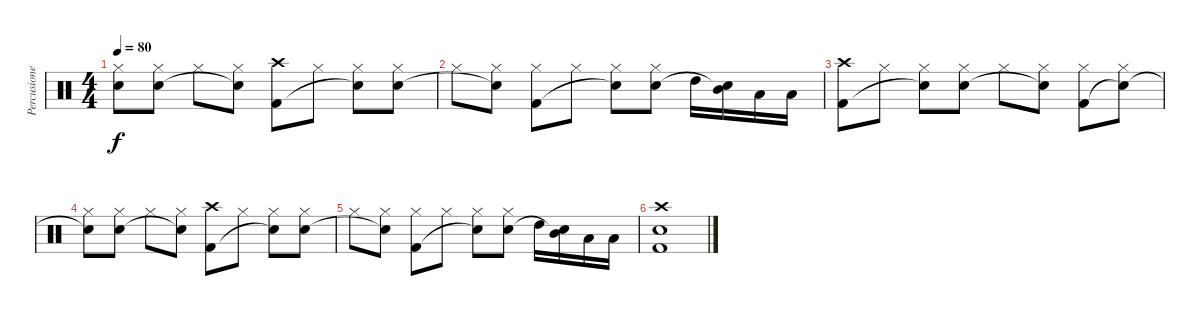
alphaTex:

\track ("Percusiones" "Percusione") {instrument percussion}
\staff {score}
\articulation defaults
\ts (4 4)
\tempo 80
\clef neutral
\ks c
("Hi-Hat (closed)" "Snare (hit)"{t}).8{dy f} ("Hi-Hat (closed)" "Electric Snare (hit)").8 "Hi-Hat (closed)".8 ("Hi-Hat (closed)" "Snare (hit)"{t}).8 ("Crash high (hit)" "Kick (hit) 2").8 "Hi-Hat (closed)".8 ("Hi-Hat (closed)" "Snare (hit)"{t}).8 ("Hi-Hat (closed)" "Electric Snare (hit)").8 |
"Hi-Hat (closed)".8 ("Hi-Hat (closed)" "Snare (hit)"{t}).8 ("Hi-Hat (closed)" "Kick (hit) 2").8 "Hi-Hat (closed)".8 ("Hi-Hat (closed)" "Snare (hit)"{t}).8 ("Hi-Hat (closed)" "Electric Snare (hit)").8 "High Tom (hit)".16 ("Mid Tom (hit)" "Snare (hit)"{t}).16 "Low Tom (hit)".16 "Low Tom (hit)".16 |
("Crash high (hit)" "Kick (hit) 2").8 "Hi-Hat (closed)".8 ("Hi-Hat (closed)" "Snare (hit)"{t}).8 ("Hi-Hat (closed)" "Electric Snare (hit)").8 "Hi-Hat (closed)".8 ("Hi-Hat (closed)" "Snare (hit)"{t}).8 ("Hi-Hat (closed)" "Kick (hit) 2").8 ("Hi-Hat (closed)" "Snare (hit)"{t}).8 |
("Hi-Hat (closed)" "Snare (hit)"{t}).8 ("Hi-Hat (closed)" "Electric Snare (hit)").8 "Hi-Hat (closed)".8 ("Hi-Hat (closed)" "Snare (hit)"{t}).8 ("Crash high (hit)" "Kick (hit) 2").8 "Hi-Hat (closed)".8 ("Hi-Hat (closed)" "Snare (hit)"{t}).8 ("Hi-Hat (closed)" "Electric Snare (hit)").8 |
"Hi-Hat (closed)".8 ("Hi-Hat (closed)" "Snare (hit)"{t}).8 ("Hi-Hat (closed)" "Kick (hit) 2").8 "Hi-Hat (closed)".8 ("Hi-Hat (closed)" "Snare (hit)"{t}).8 ("Hi-Hat (closed)" "Electric Snare (hit)").8 "High Tom (hit)".16 ("Mid Tom (hit)" "Snare (hit)"{t}).16 "Low Tom (hit)".16 "Low Tom (hit)".16 |
("Crash high (hit)" "Electric Snare (hit)" "Kick (hit) 2").1
